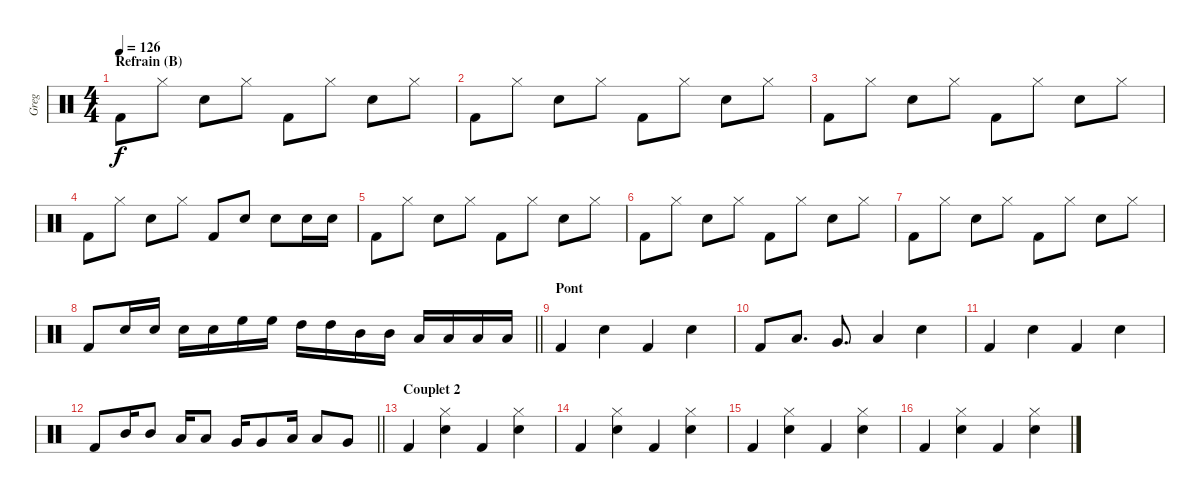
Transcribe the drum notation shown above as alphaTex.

\track ("Greg" "Greg") {instrument percussion}
\staff {score}
\articulation defaults
\ts (4 4)
\section ("" "Refrain (B)")
\tempo 126
\clef neutral
\ks c "Kick (hit) 2".8{dy f} "Hi-Hat (closed)".8 "Electric Snare (hit)".8 "Hi-Hat (closed)".8 "Kick (hit) 2".8 "Hi-Hat (closed)".8 "Electric Snare (hit)".8 "Hi-Hat (closed)".8
|
"Kick (hit) 2".8 "Hi-Hat (closed)".8 "Electric Snare (hit)".8 "Hi-Hat (closed)".8 "Kick (hit) 2".8 "Hi-Hat (closed)".8 "Electric Snare (hit)".8 "Hi-Hat (closed)".8 |
"Kick (hit) 2".8 "Hi-Hat (closed)".8 "Electric Snare (hit)".8 "Hi-Hat (closed)".8 "Kick (hit) 2".8 "Hi-Hat (closed)".8 "Electric Snare (hit)".8 "Hi-Hat (closed)".8 |
"Kick (hit) 2".8 "Hi-Hat (closed)".8 "Electric Snare (hit)".8 "Hi-Hat (closed)".8 "Kick (hit) 2".8 "Electric Snare (hit)".8 "Electric Snare (hit)".8 "Electric Snare (hit)".16 "Electric Snare (hit)".16 |
"Kick (hit) 2".8 "Hi-Hat (closed)".8 "Electric Snare (hit)".8 "Hi-Hat (closed)".8 "Kick (hit) 2".8 "Hi-Hat (closed)".8 "Electric Snare (hit)".8 "Hi-Hat (closed)".8 |
"Kick (hit) 2".8 "Hi-Hat (closed)".8 "Electric Snare (hit)".8 "Hi-Hat (closed)".8 "Kick (hit) 2".8 "Hi-Hat (closed)".8 "Electric Snare (hit)".8 "Hi-Hat (closed)".8 |
"Kick (hit) 2".8 "Hi-Hat (closed)".8 "Electric Snare (hit)".8 "Hi-Hat (closed)".8 "Kick (hit) 2".8 "Hi-Hat (closed)".8 "Electric Snare (hit)".8 "Hi-Hat (closed)".8 |
\barLineRight lightlight "Kick (hit) 2".8 "Electric Snare (hit)".16 "Electric Snare (hit)".16 "Electric Snare (hit)".16 "Electric Snare (hit)".16 "High Floor Tom (hit)".16 "High Floor Tom (hit)".16 "High Tom (hit)".16 "High Tom (hit)".16 "Mid Tom (hit)".16 "Mid Tom (hit)".16 "Low Tom (hit)".16 "Low Tom (hit)".16 "Low Floor Tom (hit)".16 "Low Floor Tom (hit)".16
|
\section ("" "Pont")
"Kick (hit) 2".4 "Electric Snare (hit)".4 "Kick (hit) 2".4 "Electric Snare (hit)".4 |
"Kick (hit) 2".8 "Low Tom (hit)".8{d} "Very Low Tom (hit)".8{d} "Low Floor Tom (hit)".4 "Electric Snare (hit)".4 |
"Kick (hit) 2".4 "Electric Snare (hit)".4 "Kick (hit) 2".4 "Electric Snare (hit)".4 |
\barLineRight lightlight "Kick (hit) 2".8 "Mid Tom (hit)".16 "Mid Tom (hit)".8 "Low Tom (hit)".16 "Low Tom (hit)".8 "Very Low Tom (hit)".16 "Very Low Tom (hit)".8 "Low Floor Tom (hit)".16 "Low Floor Tom (hit)".8 "Very Low Tom (hit)".8
|
\section ("" "Couplet 2")
"Kick (hit) 2".4 ("Hi-Hat (closed)" "Electric Snare (hit)").4 "Kick (hit) 2".4 ("Hi-Hat (closed)" "Electric Snare (hit)").4 |
"Kick (hit) 2".4 ("Hi-Hat (closed)" "Electric Snare (hit)").4 "Kick (hit) 2".4 ("Hi-Hat (closed)" "Electric Snare (hit)").4 |
"Kick (hit) 2".4 ("Hi-Hat (closed)" "Electric Snare (hit)").4 "Kick (hit) 2".4 ("Hi-Hat (closed)" "Electric Snare (hit)").4 |
"Kick (hit) 2".4 ("Hi-Hat (closed)" "Electric Snare (hit)").4 "Kick (hit) 2".4 ("Hi-Hat (closed)" "Electric Snare (hit)").4
